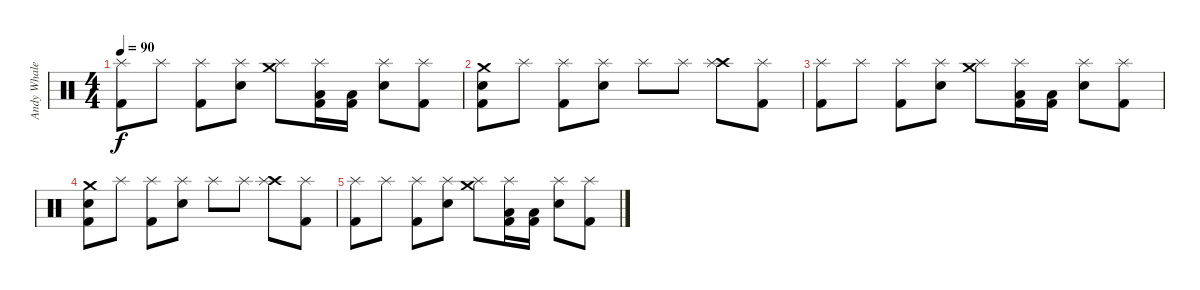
\track ("Andy Whale" "Andy Whale") {instrument percussion}
\staff {score}
\articulation defaults
\ts (4 4)
\tempo 90
\clef neutral
\ks c
("Splash (hit)" "Kick (hit) 2").8{dy f} "Splash (hit)".8 ("Splash (hit)" "Kick (hit) 2").8 ("Splash (hit)" "Snare (hit) 2").8 ("Crash medium (hit)" "Splash (hit)").8 ("Splash (hit)" "Low Floor Tom (hit)" "Kick (hit) 2").16 ("Low Floor Tom (hit)" "Kick (hit) 2").16 ("Splash (hit)" "Snare (hit) 2").8 ("Splash (hit)" "Kick (hit) 2").8 |
("Crash medium (hit)" "Snare (hit) 2" "Kick (hit) 2").8 "Splash (hit)".8 ("Splash (hit)" "Kick (hit) 2").8 ("Splash (hit)" "Snare (hit) 2").8 "Splash (hit)".8 "Splash (hit)".8 ("Crash high (hit)" "Splash (hit)").8 ("Splash (hit)" "Kick (hit) 2").8 |
("Splash (hit)" "Kick (hit) 2").8 "Splash (hit)".8 ("Splash (hit)" "Kick (hit) 2").8 ("Splash (hit)" "Snare (hit) 2").8 ("Crash medium (hit)" "Splash (hit)").8 ("Splash (hit)" "Low Floor Tom (hit)" "Kick (hit) 2").16 ("Low Floor Tom (hit)" "Kick (hit) 2").16 ("Splash (hit)" "Snare (hit) 2").8 ("Splash (hit)" "Kick (hit) 2").8 |
("Crash medium (hit)" "Snare (hit) 2" "Kick (hit) 2").8 "Splash (hit)".8 ("Splash (hit)" "Kick (hit) 2").8 ("Splash (hit)" "Snare (hit) 2").8 "Splash (hit)".8 "Splash (hit)".8 ("Crash high (hit)" "Splash (hit)").8 ("Splash (hit)" "Kick (hit) 2").8 |
("Splash (hit)" "Kick (hit) 2").8 "Splash (hit)".8 ("Splash (hit)" "Kick (hit) 2").8 ("Splash (hit)" "Snare (hit) 2").8 ("Crash medium (hit)" "Splash (hit)").8 ("Splash (hit)" "Low Floor Tom (hit)" "Kick (hit) 2").16 ("Low Floor Tom (hit)" "Kick (hit) 2").16 ("Splash (hit)" "Snare (hit) 2").8 ("Splash (hit)" "Kick (hit) 2").8
